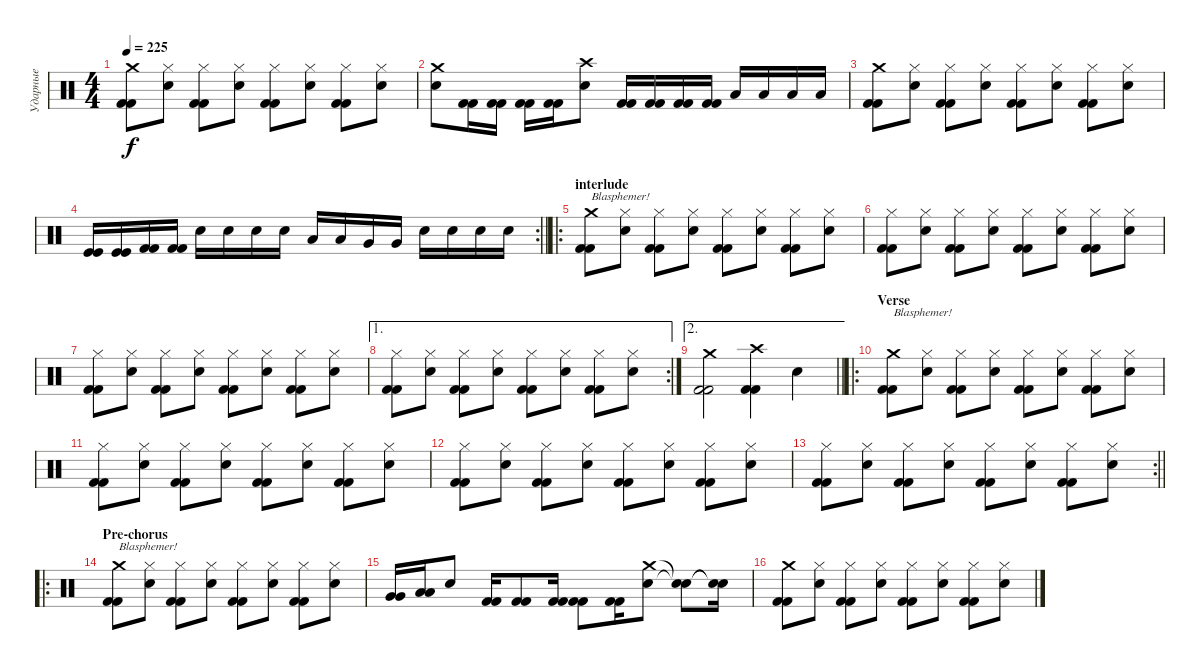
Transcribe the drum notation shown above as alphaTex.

\track ("Ударные" "Ударные") {instrument percussion}
\staff {score}
\articulation defaults
\ts (4 4)
\tempo 225
\clef neutral
\ks c
("Crash medium (hit)" "Kick (hit) 2" "Kick (hit) 2").8{dy f} ("Hi-Hat (closed)" "Snare (hit) 2").8 ("Hi-Hat (closed)" "Kick (hit) 2" "Kick (hit) 2").8 ("Hi-Hat (closed)" "Snare (hit) 2").8 ("Hi-Hat (closed)" "Kick (hit) 2" "Kick (hit) 2").8 ("Hi-Hat (closed)" "Snare (hit) 2").8 ("Hi-Hat (closed)" "Kick (hit) 2" "Kick (hit) 2").8 ("Hi-Hat (closed)" "Snare (hit) 2").8 |
("Crash medium (hit)" "Snare (hit) 2").8 ("Kick (hit) 2" "Kick (hit) 2").16 ("Kick (hit) 2" "Kick (hit) 2").16 ("Kick (hit) 2" "Kick (hit) 2").16 ("Kick (hit) 2" "Kick (hit) 2").16 ("Crash high (hit)" "Snare (hit) 2").8 ("Kick (hit) 2" "Kick (hit) 2").16 ("Kick (hit) 2" "Kick (hit) 2").16 ("Kick (hit) 2" "Kick (hit) 2").16 ("Kick (hit) 2" "Kick (hit) 2").16 "Low Floor Tom (hit)".16 "Low Floor Tom (hit)".16 "Low Tom (hit)".16 "Low Tom (hit)".16 |
("Crash medium (hit)" "Kick (hit) 2" "Kick (hit) 2").8 ("Hi-Hat (closed)" "Snare (hit) 2").8 ("Hi-Hat (closed)" "Kick (hit) 2" "Kick (hit) 2").8 ("Hi-Hat (closed)" "Snare (hit) 2").8 ("Hi-Hat (closed)" "Kick (hit) 2" "Kick (hit) 2").8 ("Hi-Hat (closed)" "Snare (hit) 2").8 ("Hi-Hat (closed)" "Kick (hit) 2" "Kick (hit) 2").8 ("Hi-Hat (closed)" "Snare (hit) 2").8 |
\rc 2
\barLineRight lightlight
("Kick (hit)" "Kick (hit)").16 ("Kick (hit)" "Kick (hit)").16 ("Kick (hit) 2" "Kick (hit) 2").16 ("Kick (hit) 2" "Kick (hit) 2").16 "Snare (hit) 2".16 "Snare (hit) 2".16 "Snare (hit) 2".16 "Snare (hit) 2".16 "Low Tom (hit)".16 "Low Tom (hit)".16 "Very Low Tom (hit)".16 "Very Low Tom (hit)".16 "Snare (hit) 2".16 "Snare (hit) 2".16 "Snare (hit) 2".16 "Snare (hit) 2".16 |
\ro
\section ("" "interlude")
("Crash medium (hit)" "Kick (hit) 2" "Kick (hit) 2").8{txt "Blasphemer!"} ("Hi-Hat (closed)" "Snare (hit) 2").8 ("Hi-Hat (closed)" "Kick (hit) 2" "Kick (hit) 2").8 ("Hi-Hat (closed)" "Snare (hit) 2").8 ("Hi-Hat (closed)" "Kick (hit) 2" "Kick (hit) 2").8 ("Hi-Hat (closed)" "Snare (hit) 2").8 ("Hi-Hat (closed)" "Kick (hit) 2" "Kick (hit) 2").8 ("Hi-Hat (closed)" "Snare (hit) 2").8 |
("Hi-Hat (closed)" "Kick (hit) 2" "Kick (hit) 2").8 ("Hi-Hat (closed)" "Snare (hit) 2").8 ("Hi-Hat (closed)" "Kick (hit) 2" "Kick (hit) 2").8 ("Hi-Hat (closed)" "Snare (hit) 2").8 ("Hi-Hat (closed)" "Kick (hit) 2" "Kick (hit) 2").8 ("Hi-Hat (closed)" "Snare (hit) 2").8 ("Hi-Hat (closed)" "Kick (hit) 2" "Kick (hit) 2").8 ("Hi-Hat (closed)" "Snare (hit) 2").8 |
("Hi-Hat (closed)" "Kick (hit) 2" "Kick (hit) 2").8 ("Hi-Hat (closed)" "Snare (hit) 2").8 ("Hi-Hat (closed)" "Kick (hit) 2" "Kick (hit) 2").8 ("Hi-Hat (closed)" "Snare (hit) 2").8 ("Hi-Hat (closed)" "Kick (hit) 2" "Kick (hit) 2").8 ("Hi-Hat (closed)" "Snare (hit) 2").8 ("Hi-Hat (closed)" "Kick (hit) 2" "Kick (hit) 2").8 ("Hi-Hat (closed)" "Snare (hit) 2").8 |
\ae 1
\rc 2
("Hi-Hat (closed)" "Kick (hit) 2" "Kick (hit) 2").8 ("Hi-Hat (closed)" "Snare (hit) 2").8 ("Hi-Hat (closed)" "Kick (hit) 2" "Kick (hit) 2").8 ("Hi-Hat (closed)" "Snare (hit) 2").8 ("Hi-Hat (closed)" "Kick (hit) 2" "Kick (hit) 2").8 ("Hi-Hat (closed)" "Snare (hit) 2").8 ("Hi-Hat (closed)" "Kick (hit) 2" "Kick (hit) 2").8 ("Hi-Hat (closed)" "Snare (hit) 2").8 |
\ae 2
\barLineRight lightlight
("Crash medium (hit)" "Kick (hit) 2" "Kick (hit) 2").2 ("Crash high (hit)" "Kick (hit) 2" "Kick (hit) 2").4 "Snare (hit) 2".4 |
\ro
\section ("" "Verse")
("Crash medium (hit)" "Kick (hit) 2" "Kick (hit) 2").8{txt "Blasphemer!"} ("Hi-Hat (closed)" "Snare (hit) 2").8 ("Hi-Hat (closed)" "Kick (hit) 2" "Kick (hit) 2").8 ("Hi-Hat (closed)" "Snare (hit) 2").8 ("Hi-Hat (closed)" "Kick (hit) 2" "Kick (hit) 2").8 ("Hi-Hat (closed)" "Snare (hit) 2").8 ("Hi-Hat (closed)" "Kick (hit) 2" "Kick (hit) 2").8 ("Hi-Hat (closed)" "Snare (hit) 2").8 |
("Hi-Hat (closed)" "Kick (hit) 2" "Kick (hit) 2").8 ("Hi-Hat (closed)" "Snare (hit) 2").8 ("Hi-Hat (closed)" "Kick (hit) 2" "Kick (hit) 2").8 ("Hi-Hat (closed)" "Snare (hit) 2").8 ("Hi-Hat (closed)" "Kick (hit) 2" "Kick (hit) 2").8 ("Hi-Hat (closed)" "Snare (hit) 2").8 ("Hi-Hat (closed)" "Kick (hit) 2" "Kick (hit) 2").8 ("Hi-Hat (closed)" "Snare (hit) 2").8 |
("Hi-Hat (closed)" "Kick (hit) 2" "Kick (hit) 2").8 ("Hi-Hat (closed)" "Snare (hit) 2").8 ("Hi-Hat (closed)" "Kick (hit) 2" "Kick (hit) 2").8 ("Hi-Hat (closed)" "Snare (hit) 2").8 ("Hi-Hat (closed)" "Kick (hit) 2" "Kick (hit) 2").8 ("Hi-Hat (closed)" "Snare (hit) 2").8 ("Hi-Hat (closed)" "Kick (hit) 2" "Kick (hit) 2").8 ("Hi-Hat (closed)" "Snare (hit) 2").8 |
\rc 2
\barLineRight lightlight
("Hi-Hat (closed)" "Kick (hit) 2" "Kick (hit) 2").8 ("Hi-Hat (closed)" "Snare (hit) 2").8 ("Hi-Hat (closed)" "Kick (hit) 2" "Kick (hit) 2").8 ("Hi-Hat (closed)" "Snare (hit) 2").8 ("Hi-Hat (closed)" "Kick (hit) 2" "Kick (hit) 2").8 ("Hi-Hat (closed)" "Snare (hit) 2").8 ("Hi-Hat (closed)" "Kick (hit) 2" "Kick (hit) 2").8 ("Hi-Hat (closed)" "Snare (hit) 2").8 |
\ro
\section ("" "Pre-chorus")
("Crash medium (hit)" "Kick (hit) 2" "Kick (hit) 2").8{txt "Blasphemer!"} ("Hi-Hat (closed)" "Snare (hit) 2").8 ("Hi-Hat (closed)" "Kick (hit) 2" "Kick (hit) 2").8 ("Hi-Hat (closed)" "Snare (hit) 2").8 ("Hi-Hat (closed)" "Kick (hit) 2" "Kick (hit) 2").8 ("Hi-Hat (closed)" "Snare (hit) 2").8 ("Hi-Hat (closed)" "Kick (hit) 2" "Kick (hit) 2").8 ("Hi-Hat (closed)" "Snare (hit) 2").8 |
("Very Low Tom (hit)" "Very Low Tom (hit)").16 ("Low Tom (hit)" "Low Tom (hit)").16 "Snare (hit) 2".8 ("Kick (hit) 2" "Kick (hit) 2").16 ("Kick (hit) 2" "Kick (hit) 2").8 ("Kick (hit) 2" "Kick (hit) 2").16 ("Kick (hit) 2" "Kick (hit) 2").8 ("Kick (hit) 2" "Kick (hit) 2").16 ("Crash medium (hit)" "Snare (hit) 2").8 ("Snare (hit)"{t} "Snare (hit)"{t}).8 ("Snare (hit)"{t} "Snare (hit)"{t}).16 |
("Crash medium (hit)" "Kick (hit) 2" "Kick (hit) 2").8 ("Hi-Hat (closed)" "Snare (hit) 2").8 ("Hi-Hat (closed)" "Kick (hit) 2" "Kick (hit) 2").8 ("Hi-Hat (closed)" "Snare (hit) 2").8 ("Hi-Hat (closed)" "Kick (hit) 2" "Kick (hit) 2").8 ("Hi-Hat (closed)" "Snare (hit) 2").8 ("Hi-Hat (closed)" "Kick (hit) 2" "Kick (hit) 2").8 ("Hi-Hat (closed)" "Snare (hit) 2").8
